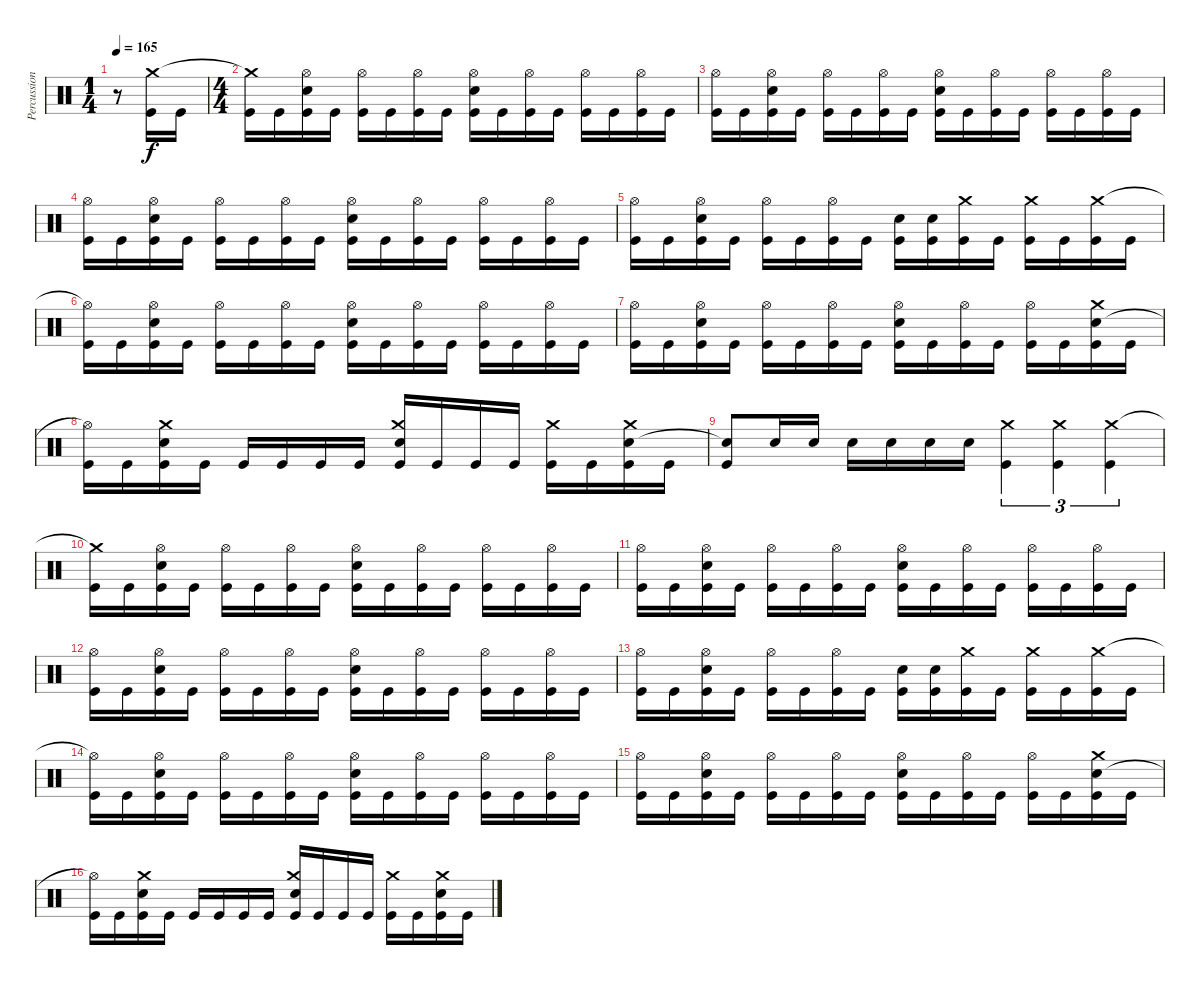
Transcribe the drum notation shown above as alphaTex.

\track ("Percussions" "Percussion") {instrument percussion}
\staff {score}
\articulation defaults
\ts (1 4)
\tempo 165
\clef neutral
\ks c
r.8{dy f} ("Kick (hit)" "Crash medium (hit)").16 "Kick (hit)".16 |
\ts (4 4)
("Kick (hit)" "Crash medium (hit)"{t}).16 "Kick (hit)".16 ("Kick (hit)" "Electric Snare (hit)" "Hi-Hat (open)").16 "Kick (hit)".16 ("Kick (hit)" "Hi-Hat (open)").16 "Kick (hit)".16 ("Kick (hit)" "Hi-Hat (open)").16 "Kick (hit)".16 ("Kick (hit)" "Electric Snare (hit)" "Hi-Hat (open)").16 "Kick (hit)".16 ("Kick (hit)" "Hi-Hat (open)").16 "Kick (hit)".16 ("Kick (hit)" "Hi-Hat (open)").16 "Kick (hit)".16 ("Kick (hit)" "Hi-Hat (open)").16 "Kick (hit)".16 |
("Kick (hit)" "Hi-Hat (open)").16 "Kick (hit)".16 ("Kick (hit)" "Electric Snare (hit)" "Hi-Hat (open)").16 "Kick (hit)".16 ("Kick (hit)" "Hi-Hat (open)").16 "Kick (hit)".16 ("Kick (hit)" "Hi-Hat (open)").16 "Kick (hit)".16 ("Kick (hit)" "Electric Snare (hit)" "Hi-Hat (open)").16 "Kick (hit)".16 ("Kick (hit)" "Hi-Hat (open)").16 "Kick (hit)".16 ("Kick (hit)" "Hi-Hat (open)").16 "Kick (hit)".16 ("Kick (hit)" "Hi-Hat (open)").16 "Kick (hit)".16 |
("Kick (hit)" "Hi-Hat (open)").16 "Kick (hit)".16 ("Kick (hit)" "Electric Snare (hit)" "Hi-Hat (open)").16 "Kick (hit)".16 ("Kick (hit)" "Hi-Hat (open)").16 "Kick (hit)".16 ("Kick (hit)" "Hi-Hat (open)").16 "Kick (hit)".16 ("Kick (hit)" "Electric Snare (hit)" "Hi-Hat (open)").16 "Kick (hit)".16 ("Kick (hit)" "Hi-Hat (open)").16 "Kick (hit)".16 ("Kick (hit)" "Hi-Hat (open)").16 "Kick (hit)".16 ("Kick (hit)" "Hi-Hat (open)").16 "Kick (hit)".16 |
("Kick (hit)" "Hi-Hat (open)").16 "Kick (hit)".16 ("Kick (hit)" "Electric Snare (hit)" "Hi-Hat (open)").16 "Kick (hit)".16 ("Kick (hit)" "Hi-Hat (open)").16 "Kick (hit)".16 ("Kick (hit)" "Hi-Hat (open)").16 "Kick (hit)".16 ("Kick (hit)" "Electric Snare (hit)").16 ("Kick (hit)" "Electric Snare (hit)").16 ("Kick (hit)" "Crash medium (hit)").16 "Kick (hit)".16 ("Kick (hit)" "Crash medium (hit)").16 "Kick (hit)".16 ("Kick (hit)" "Crash medium (hit)").16 "Kick (hit)".16 |
("Kick (hit)" "Hi-Hat (open)"{t}).16 "Kick (hit)".16 ("Kick (hit)" "Electric Snare (hit)" "Hi-Hat (open)").16 "Kick (hit)".16 ("Kick (hit)" "Hi-Hat (open)").16 "Kick (hit)".16 ("Kick (hit)" "Hi-Hat (open)").16 "Kick (hit)".16 ("Kick (hit)" "Electric Snare (hit)" "Hi-Hat (open)").16 "Kick (hit)".16 ("Kick (hit)" "Hi-Hat (open)").16 "Kick (hit)".16 ("Kick (hit)" "Hi-Hat (open)").16 "Kick (hit)".16 ("Kick (hit)" "Hi-Hat (open)").16 "Kick (hit)".16 |
("Kick (hit)" "Hi-Hat (open)").16 "Kick (hit)".16 ("Kick (hit)" "Electric Snare (hit)" "Hi-Hat (open)").16 "Kick (hit)".16 ("Kick (hit)" "Hi-Hat (open)").16 "Kick (hit)".16 ("Kick (hit)" "Hi-Hat (open)").16 "Kick (hit)".16 ("Kick (hit)" "Electric Snare (hit)" "Hi-Hat (open)").16 "Kick (hit)".16 ("Kick (hit)" "Hi-Hat (open)").16 "Kick (hit)".16 ("Kick (hit)" "Hi-Hat (open)").16 "Kick (hit)".16 ("Kick (hit)" "Electric Snare (hit)" "Crash medium (hit)").16 "Kick (hit)".16 |
("Kick (hit)" "Hi-Hat (open)"{t}).16 "Kick (hit)".16 ("Kick (hit)" "Electric Snare (hit)" "Crash medium (hit)").16 "Kick (hit)".16 "Kick (hit)".16 "Kick (hit)".16 "Kick (hit)".16 "Kick (hit)".16 ("Kick (hit)" "Electric Snare (hit)" "Crash medium (hit)").16 "Kick (hit)".16 "Kick (hit)".16 "Kick (hit)".16 ("Kick (hit)" "Crash medium (hit)").16 "Kick (hit)".16 ("Kick (hit)" "Electric Snare (hit)" "Crash medium (hit)").16 "Kick (hit)".16 |
("Kick (hit)" "Snare (hit)"{t}).8 "Electric Snare (hit)".16 "Electric Snare (hit)".16 "Electric Snare (hit)".16 "Electric Snare (hit)".16 "Electric Snare (hit)".16 "Electric Snare (hit)".16 ("Kick (hit)" "Crash medium (hit)").4{tu (3 2)} ("Kick (hit)" "Crash medium (hit)").4{tu (3 2)} ("Kick (hit)" "Crash medium (hit)").4{tu (3 2)} |
("Kick (hit)" "Crash medium (hit)"{t}).16 "Kick (hit)".16 ("Kick (hit)" "Electric Snare (hit)" "Hi-Hat (open)").16 "Kick (hit)".16 ("Kick (hit)" "Hi-Hat (open)").16 "Kick (hit)".16 ("Kick (hit)" "Hi-Hat (open)").16 "Kick (hit)".16 ("Kick (hit)" "Electric Snare (hit)" "Hi-Hat (open)").16 "Kick (hit)".16 ("Kick (hit)" "Hi-Hat (open)").16 "Kick (hit)".16 ("Kick (hit)" "Hi-Hat (open)").16 "Kick (hit)".16 ("Kick (hit)" "Hi-Hat (open)").16 "Kick (hit)".16 |
("Kick (hit)" "Hi-Hat (open)").16 "Kick (hit)".16 ("Kick (hit)" "Electric Snare (hit)" "Hi-Hat (open)").16 "Kick (hit)".16 ("Kick (hit)" "Hi-Hat (open)").16 "Kick (hit)".16 ("Kick (hit)" "Hi-Hat (open)").16 "Kick (hit)".16 ("Kick (hit)" "Electric Snare (hit)" "Hi-Hat (open)").16 "Kick (hit)".16 ("Kick (hit)" "Hi-Hat (open)").16 "Kick (hit)".16 ("Kick (hit)" "Hi-Hat (open)").16 "Kick (hit)".16 ("Kick (hit)" "Hi-Hat (open)").16 "Kick (hit)".16 |
("Kick (hit)" "Hi-Hat (open)").16 "Kick (hit)".16 ("Kick (hit)" "Electric Snare (hit)" "Hi-Hat (open)").16 "Kick (hit)".16 ("Kick (hit)" "Hi-Hat (open)").16 "Kick (hit)".16 ("Kick (hit)" "Hi-Hat (open)").16 "Kick (hit)".16 ("Kick (hit)" "Electric Snare (hit)" "Hi-Hat (open)").16 "Kick (hit)".16 ("Kick (hit)" "Hi-Hat (open)").16 "Kick (hit)".16 ("Kick (hit)" "Hi-Hat (open)").16 "Kick (hit)".16 ("Kick (hit)" "Hi-Hat (open)").16 "Kick (hit)".16 |
("Kick (hit)" "Hi-Hat (open)").16 "Kick (hit)".16 ("Kick (hit)" "Electric Snare (hit)" "Hi-Hat (open)").16 "Kick (hit)".16 ("Kick (hit)" "Hi-Hat (open)").16 "Kick (hit)".16 ("Kick (hit)" "Hi-Hat (open)").16 "Kick (hit)".16 ("Kick (hit)" "Electric Snare (hit)").16 ("Kick (hit)" "Electric Snare (hit)").16 ("Kick (hit)" "Crash medium (hit)").16 "Kick (hit)".16 ("Kick (hit)" "Crash medium (hit)").16 "Kick (hit)".16 ("Kick (hit)" "Crash medium (hit)").16 "Kick (hit)".16 |
("Kick (hit)" "Hi-Hat (open)"{t}).16 "Kick (hit)".16 ("Kick (hit)" "Electric Snare (hit)" "Hi-Hat (open)").16 "Kick (hit)".16 ("Kick (hit)" "Hi-Hat (open)").16 "Kick (hit)".16 ("Kick (hit)" "Hi-Hat (open)").16 "Kick (hit)".16 ("Kick (hit)" "Electric Snare (hit)" "Hi-Hat (open)").16 "Kick (hit)".16 ("Kick (hit)" "Hi-Hat (open)").16 "Kick (hit)".16 ("Kick (hit)" "Hi-Hat (open)").16 "Kick (hit)".16 ("Kick (hit)" "Hi-Hat (open)").16 "Kick (hit)".16 |
("Kick (hit)" "Hi-Hat (open)").16 "Kick (hit)".16 ("Kick (hit)" "Electric Snare (hit)" "Hi-Hat (open)").16 "Kick (hit)".16 ("Kick (hit)" "Hi-Hat (open)").16 "Kick (hit)".16 ("Kick (hit)" "Hi-Hat (open)").16 "Kick (hit)".16 ("Kick (hit)" "Electric Snare (hit)" "Hi-Hat (open)").16 "Kick (hit)".16 ("Kick (hit)" "Hi-Hat (open)").16 "Kick (hit)".16 ("Kick (hit)" "Hi-Hat (open)").16 "Kick (hit)".16 ("Kick (hit)" "Electric Snare (hit)" "Crash medium (hit)").16 "Kick (hit)".16 |
("Kick (hit)" "Hi-Hat (open)"{t}).16 "Kick (hit)".16 ("Kick (hit)" "Electric Snare (hit)" "Crash medium (hit)").16 "Kick (hit)".16 "Kick (hit)".16 "Kick (hit)".16 "Kick (hit)".16 "Kick (hit)".16 ("Kick (hit)" "Electric Snare (hit)" "Crash medium (hit)").16 "Kick (hit)".16 "Kick (hit)".16 "Kick (hit)".16 ("Kick (hit)" "Crash medium (hit)").16 "Kick (hit)".16 ("Kick (hit)" "Electric Snare (hit)" "Crash medium (hit)").16 "Kick (hit)".16
